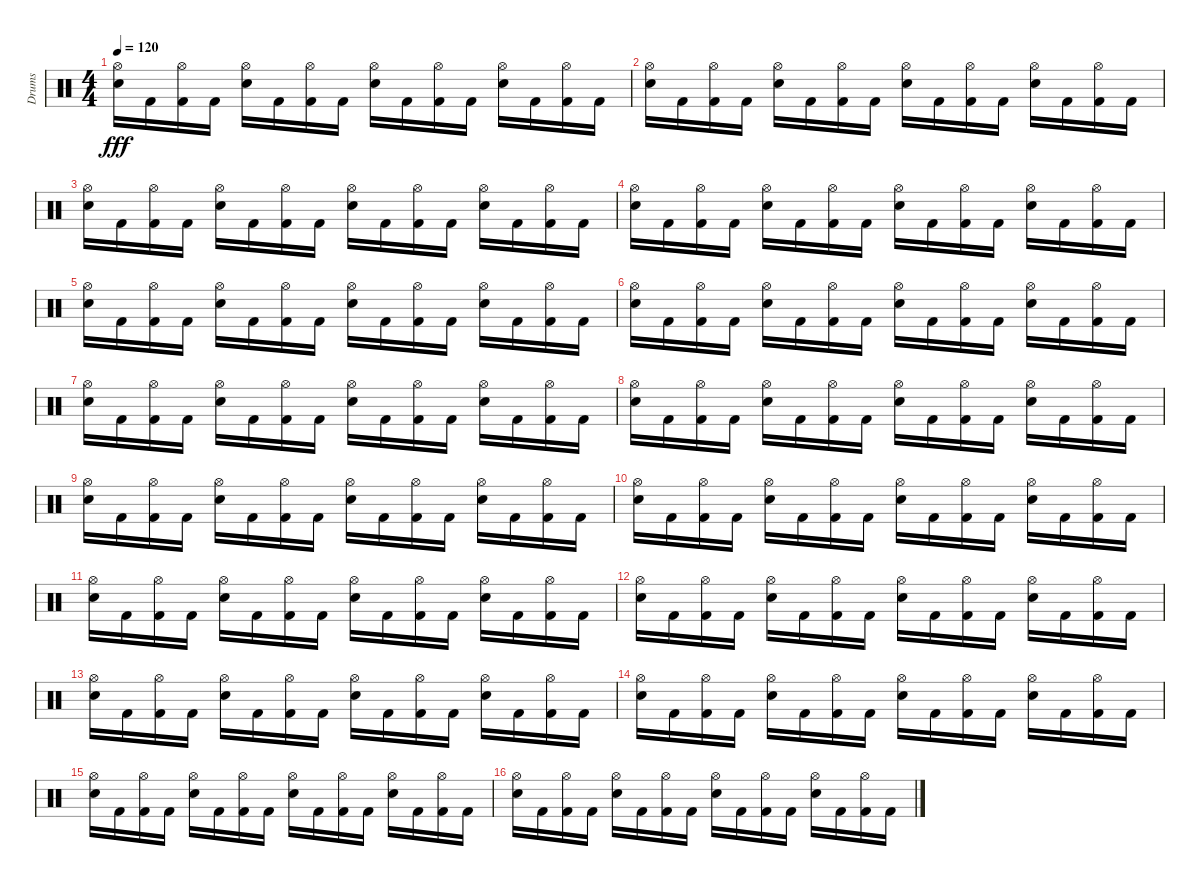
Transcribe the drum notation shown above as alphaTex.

\track ("Drums" "Drums") {instrument percussion}
\staff {score}
\articulation defaults
\ts (4 4)
\tempo 120
\clef neutral
\ks c
("Hi-Hat (open)" "Electric Snare (hit)").16{dy fff} "Kick (hit) 2".16 ("Hi-Hat (open)" "Kick (hit) 2").16 "Kick (hit) 2".16 ("Hi-Hat (open)" "Electric Snare (hit)").16 "Kick (hit) 2".16 ("Hi-Hat (open)" "Kick (hit) 2").16 "Kick (hit) 2".16 ("Hi-Hat (open)" "Electric Snare (hit)").16 "Kick (hit) 2".16 ("Hi-Hat (open)" "Kick (hit) 2").16 "Kick (hit) 2".16 ("Hi-Hat (open)" "Electric Snare (hit)").16 "Kick (hit) 2".16 ("Hi-Hat (open)" "Kick (hit) 2").16 "Kick (hit) 2".16 |
("Hi-Hat (open)" "Electric Snare (hit)").16 "Kick (hit) 2".16 ("Hi-Hat (open)" "Kick (hit) 2").16 "Kick (hit) 2".16 ("Hi-Hat (open)" "Electric Snare (hit)").16 "Kick (hit) 2".16 ("Hi-Hat (open)" "Kick (hit) 2").16 "Kick (hit) 2".16 ("Hi-Hat (open)" "Electric Snare (hit)").16 "Kick (hit) 2".16 ("Hi-Hat (open)" "Kick (hit) 2").16 "Kick (hit) 2".16 ("Hi-Hat (open)" "Electric Snare (hit)").16 "Kick (hit) 2".16 ("Hi-Hat (open)" "Kick (hit) 2").16 "Kick (hit) 2".16 |
("Hi-Hat (open)" "Electric Snare (hit)").16 "Kick (hit) 2".16 ("Hi-Hat (open)" "Kick (hit) 2").16 "Kick (hit) 2".16 ("Hi-Hat (open)" "Electric Snare (hit)").16 "Kick (hit) 2".16 ("Hi-Hat (open)" "Kick (hit) 2").16 "Kick (hit) 2".16 ("Hi-Hat (open)" "Electric Snare (hit)").16 "Kick (hit) 2".16 ("Hi-Hat (open)" "Kick (hit) 2").16 "Kick (hit) 2".16 ("Hi-Hat (open)" "Electric Snare (hit)").16 "Kick (hit) 2".16 ("Hi-Hat (open)" "Kick (hit) 2").16 "Kick (hit) 2".16 |
("Hi-Hat (open)" "Electric Snare (hit)").16 "Kick (hit) 2".16 ("Hi-Hat (open)" "Kick (hit) 2").16 "Kick (hit) 2".16 ("Hi-Hat (open)" "Electric Snare (hit)").16 "Kick (hit) 2".16 ("Hi-Hat (open)" "Kick (hit) 2").16 "Kick (hit) 2".16 ("Hi-Hat (open)" "Electric Snare (hit)").16 "Kick (hit) 2".16 ("Hi-Hat (open)" "Kick (hit) 2").16 "Kick (hit) 2".16 ("Hi-Hat (open)" "Electric Snare (hit)").16 "Kick (hit) 2".16 ("Hi-Hat (open)" "Kick (hit) 2").16 "Kick (hit) 2".16 |
("Hi-Hat (open)" "Electric Snare (hit)").16 "Kick (hit) 2".16 ("Hi-Hat (open)" "Kick (hit) 2").16 "Kick (hit) 2".16 ("Hi-Hat (open)" "Electric Snare (hit)").16 "Kick (hit) 2".16 ("Hi-Hat (open)" "Kick (hit) 2").16 "Kick (hit) 2".16 ("Hi-Hat (open)" "Electric Snare (hit)").16 "Kick (hit) 2".16 ("Hi-Hat (open)" "Kick (hit) 2").16 "Kick (hit) 2".16 ("Hi-Hat (open)" "Electric Snare (hit)").16 "Kick (hit) 2".16 ("Hi-Hat (open)" "Kick (hit) 2").16 "Kick (hit) 2".16 |
("Hi-Hat (open)" "Electric Snare (hit)").16 "Kick (hit) 2".16 ("Hi-Hat (open)" "Kick (hit) 2").16 "Kick (hit) 2".16 ("Hi-Hat (open)" "Electric Snare (hit)").16 "Kick (hit) 2".16 ("Hi-Hat (open)" "Kick (hit) 2").16 "Kick (hit) 2".16 ("Hi-Hat (open)" "Electric Snare (hit)").16 "Kick (hit) 2".16 ("Hi-Hat (open)" "Kick (hit) 2").16 "Kick (hit) 2".16 ("Hi-Hat (open)" "Electric Snare (hit)").16 "Kick (hit) 2".16 ("Hi-Hat (open)" "Kick (hit) 2").16 "Kick (hit) 2".16 |
("Hi-Hat (open)" "Electric Snare (hit)").16 "Kick (hit) 2".16 ("Hi-Hat (open)" "Kick (hit) 2").16 "Kick (hit) 2".16 ("Hi-Hat (open)" "Electric Snare (hit)").16 "Kick (hit) 2".16 ("Hi-Hat (open)" "Kick (hit) 2").16 "Kick (hit) 2".16 ("Hi-Hat (open)" "Electric Snare (hit)").16 "Kick (hit) 2".16 ("Hi-Hat (open)" "Kick (hit) 2").16 "Kick (hit) 2".16 ("Hi-Hat (open)" "Electric Snare (hit)").16 "Kick (hit) 2".16 ("Hi-Hat (open)" "Kick (hit) 2").16 "Kick (hit) 2".16 |
("Hi-Hat (open)" "Electric Snare (hit)").16{volume 16} "Kick (hit) 2".16 ("Hi-Hat (open)" "Kick (hit) 2").16 "Kick (hit) 2".16{volume 16} ("Hi-Hat (open)" "Electric Snare (hit)").16 "Kick (hit) 2".16{volume 16} ("Hi-Hat (open)" "Kick (hit) 2").16 "Kick (hit) 2".16{volume 16} ("Hi-Hat (open)" "Electric Snare (hit)").16 "Kick (hit) 2".16{volume 15} ("Hi-Hat (open)" "Kick (hit) 2").16 "Kick (hit) 2".16{volume 15} ("Hi-Hat (open)" "Electric Snare (hit)").16 "Kick (hit) 2".16 ("Hi-Hat (open)" "Kick (hit) 2").16{volume 15} "Kick (hit) 2".16 |
("Hi-Hat (open)" "Electric Snare (hit)").16{volume 15} "Kick (hit) 2".16 ("Hi-Hat (open)" "Kick (hit) 2").16{volume 15} "Kick (hit) 2".16 ("Hi-Hat (open)" "Electric Snare (hit)").16{volume 15} "Kick (hit) 2".16 ("Hi-Hat (open)" "Kick (hit) 2").16 "Kick (hit) 2".16{volume 15} ("Hi-Hat (open)" "Electric Snare (hit)").16 "Kick (hit) 2".16{volume 14} ("Hi-Hat (open)" "Kick (hit) 2").16 "Kick (hit) 2".16{volume 14} ("Hi-Hat (open)" "Electric Snare (hit)").16 "Kick (hit) 2".16{volume 14} ("Hi-Hat (open)" "Kick (hit) 2").16 "Kick (hit) 2".16{volume 14} |
("Hi-Hat (open)" "Electric Snare (hit)").16 "Kick (hit) 2".16 ("Hi-Hat (open)" "Kick (hit) 2").16{volume 14} "Kick (hit) 2".16 ("Hi-Hat (open)" "Electric Snare (hit)").16{volume 14} "Kick (hit) 2".16 ("Hi-Hat (open)" "Kick (hit) 2").16{volume 14} "Kick (hit) 2".16 ("Hi-Hat (open)" "Electric Snare (hit)").16{volume 14} "Kick (hit) 2".16 ("Hi-Hat (open)" "Kick (hit) 2").16{volume 14} "Kick (hit) 2".16 ("Hi-Hat (open)" "Electric Snare (hit)").16 "Kick (hit) 2".16{volume 13} ("Hi-Hat (open)" "Kick (hit) 2").16 "Kick (hit) 2".16{volume 13} |
("Hi-Hat (open)" "Electric Snare (hit)").16 "Kick (hit) 2".16{volume 13} ("Hi-Hat (open)" "Kick (hit) 2").16 "Kick (hit) 2".16{volume 13} ("Hi-Hat (open)" "Electric Snare (hit)").16 "Kick (hit) 2".16{volume 13} ("Hi-Hat (open)" "Kick (hit) 2").16 "Kick (hit) 2".16 ("Hi-Hat (open)" "Electric Snare (hit)").16{volume 13} "Kick (hit) 2".16 ("Hi-Hat (open)" "Kick (hit) 2").16{volume 13} "Kick (hit) 2".16 ("Hi-Hat (open)" "Electric Snare (hit)").16{volume 12} "Kick (hit) 2".16 ("Hi-Hat (open)" "Kick (hit) 2").16{volume 12} "Kick (hit) 2".16 |
("Hi-Hat (open)" "Electric Snare (hit)").16{volume 12} "Kick (hit) 2".16 ("Hi-Hat (open)" "Kick (hit) 2").16 "Kick (hit) 2".16{volume 12} ("Hi-Hat (open)" "Electric Snare (hit)").16 "Kick (hit) 2".16{volume 12} ("Hi-Hat (open)" "Kick (hit) 2").16 "Kick (hit) 2".16{volume 12} ("Hi-Hat (open)" "Electric Snare (hit)").16 "Kick (hit) 2".16{volume 12} ("Hi-Hat (open)" "Kick (hit) 2").16 "Kick (hit) 2".16{volume 12} ("Hi-Hat (open)" "Electric Snare (hit)").16 "Kick (hit) 2".16 ("Hi-Hat (open)" "Kick (hit) 2").16{volume 12} "Kick (hit) 2".16 |
("Hi-Hat (open)" "Electric Snare (hit)").16{volume 11} "Kick (hit) 2".16 ("Hi-Hat (open)" "Kick (hit) 2").16{volume 11} "Kick (hit) 2".16 ("Hi-Hat (open)" "Electric Snare (hit)").16{volume 11} "Kick (hit) 2".16 ("Hi-Hat (open)" "Kick (hit) 2").16{volume 11} "Kick (hit) 2".16 ("Hi-Hat (open)" "Electric Snare (hit)").16 "Kick (hit) 2".16{volume 11} ("Hi-Hat (open)" "Kick (hit) 2").16 "Kick (hit) 2".16{volume 11} ("Hi-Hat (open)" "Electric Snare (hit)").16 "Kick (hit) 2".16{volume 11} ("Hi-Hat (open)" "Kick (hit) 2").16 "Kick (hit) 2".16{volume 10} |
("Hi-Hat (open)" "Electric Snare (hit)").16 "Kick (hit) 2".16{volume 10} ("Hi-Hat (open)" "Kick (hit) 2").16 "Kick (hit) 2".16 ("Hi-Hat (open)" "Electric Snare (hit)").16{volume 10} "Kick (hit) 2".16 ("Hi-Hat (open)" "Kick (hit) 2").16{volume 10} "Kick (hit) 2".16 ("Hi-Hat (open)" "Electric Snare (hit)").16{volume 10} "Kick (hit) 2".16 ("Hi-Hat (open)" "Kick (hit) 2").16{volume 10} "Kick (hit) 2".16 ("Hi-Hat (open)" "Electric Snare (hit)").16{volume 10} "Kick (hit) 2".16 ("Hi-Hat (open)" "Kick (hit) 2").16 "Kick (hit) 2".16{volume 10} |
("Hi-Hat (open)" "Electric Snare (hit)").16 "Kick (hit) 2".16{volume 10} ("Hi-Hat (open)" "Kick (hit) 2").16 "Kick (hit) 2".16{volume 9} ("Hi-Hat (open)" "Electric Snare (hit)").16 "Kick (hit) 2".16{volume 9} ("Hi-Hat (open)" "Kick (hit) 2").16 "Kick (hit) 2".16 ("Hi-Hat (open)" "Electric Snare (hit)").16{volume 9} "Kick (hit) 2".16 ("Hi-Hat (open)" "Kick (hit) 2").16{volume 9} "Kick (hit) 2".16 ("Hi-Hat (open)" "Electric Snare (hit)").16{volume 9} "Kick (hit) 2".16 ("Hi-Hat (open)" "Kick (hit) 2").16{volume 9} "Kick (hit) 2".16 |
("Hi-Hat (open)" "Electric Snare (hit)").16{volume 9} "Kick (hit) 2".16 ("Hi-Hat (open)" "Kick (hit) 2").16 "Kick (hit) 2".16{volume 8} ("Hi-Hat (open)" "Electric Snare (hit)").16 "Kick (hit) 2".16{volume 8} ("Hi-Hat (open)" "Kick (hit) 2").16 "Kick (hit) 2".16{volume 8} ("Hi-Hat (open)" "Electric Snare (hit)").16 "Kick (hit) 2".16{volume 8} ("Hi-Hat (open)" "Kick (hit) 2").16 "Kick (hit) 2".16{volume 8} ("Hi-Hat (open)" "Electric Snare (hit)").16 "Kick (hit) 2".16 ("Hi-Hat (open)" "Kick (hit) 2").16{volume 8} "Kick (hit) 2".16
